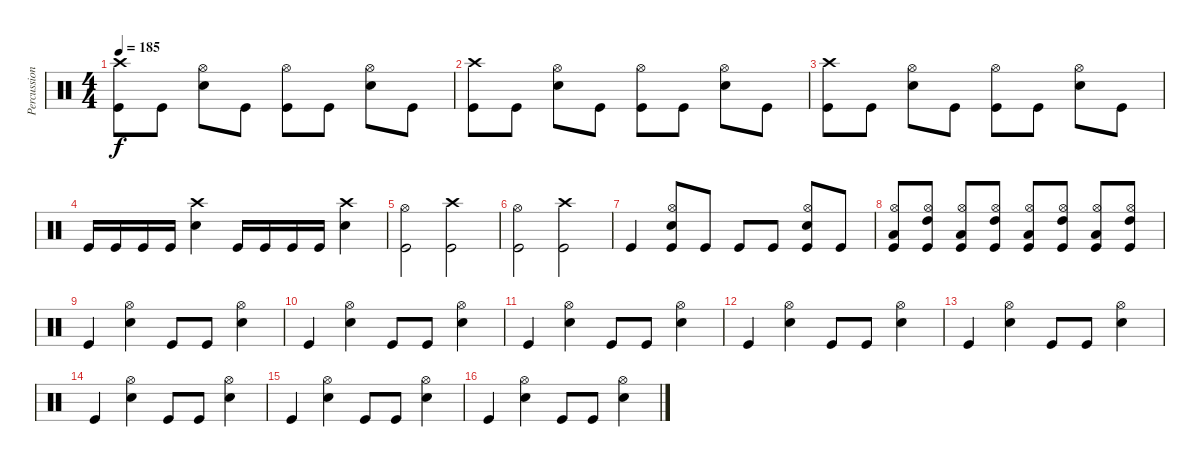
\track ("Percussions" "Percussion") {instrument percussion}
\staff {score}
\articulation defaults
\ts (4 4)
\tempo 185
\clef neutral
\ks c
("Crash high (hit)" "Kick (hit)").8{dy f} "Kick (hit)".8 ("Hi-Hat (open)" "Snare (hit) 2").8 "Kick (hit)".8 ("Hi-Hat (open)" "Kick (hit)").8 "Kick (hit)".8 ("Hi-Hat (open)" "Snare (hit) 2").8 "Kick (hit)".8 |
("Crash high (hit)" "Kick (hit)").8 "Kick (hit)".8 ("Hi-Hat (open)" "Snare (hit) 2").8 "Kick (hit)".8 ("Hi-Hat (open)" "Kick (hit)").8 "Kick (hit)".8 ("Hi-Hat (open)" "Snare (hit) 2").8 "Kick (hit)".8 |
("Crash high (hit)" "Kick (hit)").8 "Kick (hit)".8 ("Hi-Hat (open)" "Snare (hit) 2").8 "Kick (hit)".8 ("Hi-Hat (open)" "Kick (hit)").8 "Kick (hit)".8 ("Hi-Hat (open)" "Snare (hit) 2").8 "Kick (hit)".8 |
"Kick (hit)".16 "Kick (hit)".16 "Kick (hit)".16 "Kick (hit)".16 ("Crash high (hit)" "Snare (hit) 2").4 "Kick (hit)".16 "Kick (hit)".16 "Kick (hit)".16 "Kick (hit)".16 ("Crash high (hit)" "Snare (hit) 2").4 |
("Hi-Hat (open)" "Kick (hit)").2 ("Crash high (hit)" "Kick (hit)").2 |
("Hi-Hat (open)" "Kick (hit)").2 ("Crash high (hit)" "Kick (hit)").2 |
"Kick (hit)".4 ("Hi-Hat (open)" "Snare (hit) 2" "Kick (hit)").8 "Kick (hit)".8 "Kick (hit)".8 "Kick (hit)".8 ("Hi-Hat (open)" "Snare (hit) 2" "Kick (hit)").8 "Kick (hit)".8 |
("Hi-Hat (open)" "Low Tom (hit)" "Kick (hit)").8 ("Hi-Hat (open)" "High Tom (hit)" "Kick (hit)").8 ("Hi-Hat (open)" "Low Tom (hit)" "Kick (hit)").8 ("Hi-Hat (open)" "High Tom (hit)" "Kick (hit)").8 ("Hi-Hat (open)" "Low Tom (hit)" "Kick (hit)").8 ("Hi-Hat (open)" "High Tom (hit)" "Kick (hit)").8 ("Hi-Hat (open)" "Low Tom (hit)" "Kick (hit)").8 ("Hi-Hat (open)" "High Tom (hit)" "Kick (hit)").8 |
"Kick (hit)".4 ("Hi-Hat (open)" "Snare (hit) 2").4 "Kick (hit)".8 "Kick (hit)".8 ("Hi-Hat (open)" "Snare (hit) 2").4 |
"Kick (hit)".4 ("Hi-Hat (open)" "Snare (hit) 2").4 "Kick (hit)".8 "Kick (hit)".8 ("Hi-Hat (open)" "Snare (hit) 2").4 |
"Kick (hit)".4 ("Hi-Hat (open)" "Snare (hit) 2").4 "Kick (hit)".8 "Kick (hit)".8 ("Hi-Hat (open)" "Snare (hit) 2").4 |
"Kick (hit)".4 ("Hi-Hat (open)" "Snare (hit) 2").4 "Kick (hit)".8 "Kick (hit)".8 ("Hi-Hat (open)" "Snare (hit) 2").4 |
"Kick (hit)".4 ("Hi-Hat (open)" "Snare (hit) 2").4 "Kick (hit)".8 "Kick (hit)".8 ("Hi-Hat (open)" "Snare (hit) 2").4 |
"Kick (hit)".4 ("Hi-Hat (open)" "Snare (hit) 2").4 "Kick (hit)".8 "Kick (hit)".8 ("Hi-Hat (open)" "Snare (hit) 2").4 |
"Kick (hit)".4 ("Hi-Hat (open)" "Snare (hit) 2").4 "Kick (hit)".8 "Kick (hit)".8 ("Hi-Hat (open)" "Snare (hit) 2").4 |
"Kick (hit)".4 ("Hi-Hat (open)" "Snare (hit) 2").4 "Kick (hit)".8 "Kick (hit)".8 ("Hi-Hat (open)" "Snare (hit) 2").4
